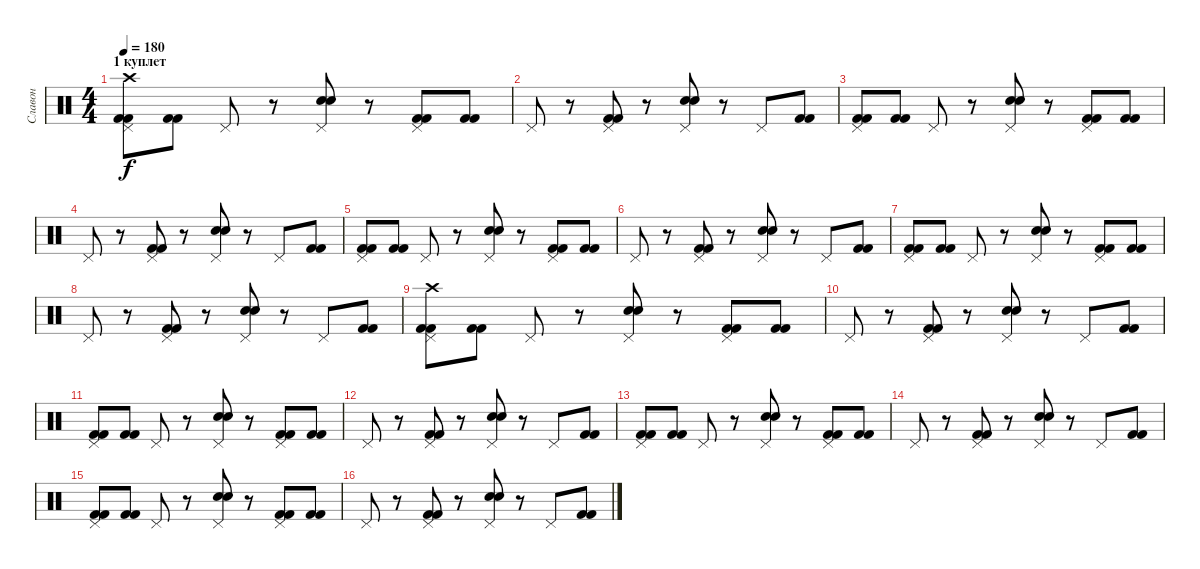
\track ("Славон" "Славон") {instrument percussion}
\staff {score}
\articulation defaults
\ts (4 4)
\section ("" "1 куплет")
\tempo 180
\clef neutral
\ks c
("Pedal Hi-Hat (hit)" "Kick (hit) 2" "Kick (hit) 2" "Crash high (hit)").8{dy f} ("Kick (hit) 2" "Kick (hit) 2").8 "Pedal Hi-Hat (hit)".8 r.8 ("Pedal Hi-Hat (hit)" "Electric Snare (hit)" "Electric Snare (hit)").8 r.8 ("Pedal Hi-Hat (hit)" "Kick (hit) 2" "Kick (hit) 2").8 ("Kick (hit) 2" "Kick (hit) 2").8 |
"Pedal Hi-Hat (hit)".8 r.8 ("Pedal Hi-Hat (hit)" "Kick (hit) 2" "Kick (hit) 2").8 r.8 ("Pedal Hi-Hat (hit)" "Electric Snare (hit)" "Electric Snare (hit)").8 r.8 "Pedal Hi-Hat (hit)".8 ("Kick (hit) 2" "Kick (hit) 2").8 |
("Pedal Hi-Hat (hit)" "Kick (hit) 2" "Kick (hit) 2").8 ("Kick (hit) 2" "Kick (hit) 2").8 "Pedal Hi-Hat (hit)".8 r.8 ("Pedal Hi-Hat (hit)" "Electric Snare (hit)" "Electric Snare (hit)").8 r.8 ("Pedal Hi-Hat (hit)" "Kick (hit) 2" "Kick (hit) 2").8 ("Kick (hit) 2" "Kick (hit) 2").8 |
"Pedal Hi-Hat (hit)".8 r.8 ("Pedal Hi-Hat (hit)" "Kick (hit) 2" "Kick (hit) 2").8 r.8 ("Pedal Hi-Hat (hit)" "Electric Snare (hit)" "Electric Snare (hit)").8 r.8 "Pedal Hi-Hat (hit)".8 ("Kick (hit) 2" "Kick (hit) 2").8 |
("Pedal Hi-Hat (hit)" "Kick (hit) 2" "Kick (hit) 2").8 ("Kick (hit) 2" "Kick (hit) 2").8 "Pedal Hi-Hat (hit)".8 r.8 ("Pedal Hi-Hat (hit)" "Electric Snare (hit)" "Electric Snare (hit)").8 r.8 ("Pedal Hi-Hat (hit)" "Kick (hit) 2" "Kick (hit) 2").8 ("Kick (hit) 2" "Kick (hit) 2").8 |
"Pedal Hi-Hat (hit)".8 r.8 ("Pedal Hi-Hat (hit)" "Kick (hit) 2" "Kick (hit) 2").8 r.8 ("Pedal Hi-Hat (hit)" "Electric Snare (hit)" "Electric Snare (hit)").8 r.8 "Pedal Hi-Hat (hit)".8 ("Kick (hit) 2" "Kick (hit) 2").8 |
("Pedal Hi-Hat (hit)" "Kick (hit) 2" "Kick (hit) 2").8 ("Kick (hit) 2" "Kick (hit) 2").8 "Pedal Hi-Hat (hit)".8 r.8 ("Pedal Hi-Hat (hit)" "Electric Snare (hit)" "Electric Snare (hit)").8 r.8 ("Pedal Hi-Hat (hit)" "Kick (hit) 2" "Kick (hit) 2").8 ("Kick (hit) 2" "Kick (hit) 2").8 |
"Pedal Hi-Hat (hit)".8 r.8 ("Pedal Hi-Hat (hit)" "Kick (hit) 2" "Kick (hit) 2").8 r.8 ("Pedal Hi-Hat (hit)" "Electric Snare (hit)" "Electric Snare (hit)").8 r.8 "Pedal Hi-Hat (hit)".8 ("Kick (hit) 2" "Kick (hit) 2").8 |
("Pedal Hi-Hat (hit)" "Kick (hit) 2" "Kick (hit) 2" "Crash high (hit)").8 ("Kick (hit) 2" "Kick (hit) 2").8 "Pedal Hi-Hat (hit)".8 r.8 ("Pedal Hi-Hat (hit)" "Electric Snare (hit)" "Electric Snare (hit)").8 r.8 ("Pedal Hi-Hat (hit)" "Kick (hit) 2" "Kick (hit) 2").8 ("Kick (hit) 2" "Kick (hit) 2").8 |
"Pedal Hi-Hat (hit)".8 r.8 ("Pedal Hi-Hat (hit)" "Kick (hit) 2" "Kick (hit) 2").8 r.8 ("Pedal Hi-Hat (hit)" "Electric Snare (hit)" "Electric Snare (hit)").8 r.8 "Pedal Hi-Hat (hit)".8 ("Kick (hit) 2" "Kick (hit) 2").8 |
("Pedal Hi-Hat (hit)" "Kick (hit) 2" "Kick (hit) 2").8 ("Kick (hit) 2" "Kick (hit) 2").8 "Pedal Hi-Hat (hit)".8 r.8 ("Pedal Hi-Hat (hit)" "Electric Snare (hit)" "Electric Snare (hit)").8 r.8 ("Pedal Hi-Hat (hit)" "Kick (hit) 2" "Kick (hit) 2").8 ("Kick (hit) 2" "Kick (hit) 2").8 |
"Pedal Hi-Hat (hit)".8 r.8 ("Pedal Hi-Hat (hit)" "Kick (hit) 2" "Kick (hit) 2").8 r.8 ("Pedal Hi-Hat (hit)" "Electric Snare (hit)" "Electric Snare (hit)").8 r.8 "Pedal Hi-Hat (hit)".8 ("Kick (hit) 2" "Kick (hit) 2").8 |
("Pedal Hi-Hat (hit)" "Kick (hit) 2" "Kick (hit) 2").8 ("Kick (hit) 2" "Kick (hit) 2").8 "Pedal Hi-Hat (hit)".8 r.8 ("Pedal Hi-Hat (hit)" "Electric Snare (hit)" "Electric Snare (hit)").8 r.8 ("Pedal Hi-Hat (hit)" "Kick (hit) 2" "Kick (hit) 2").8 ("Kick (hit) 2" "Kick (hit) 2").8 |
"Pedal Hi-Hat (hit)".8 r.8 ("Pedal Hi-Hat (hit)" "Kick (hit) 2" "Kick (hit) 2").8 r.8 ("Pedal Hi-Hat (hit)" "Electric Snare (hit)" "Electric Snare (hit)").8 r.8 "Pedal Hi-Hat (hit)".8 ("Kick (hit) 2" "Kick (hit) 2").8 |
("Pedal Hi-Hat (hit)" "Kick (hit) 2" "Kick (hit) 2").8 ("Kick (hit) 2" "Kick (hit) 2").8 "Pedal Hi-Hat (hit)".8 r.8 ("Pedal Hi-Hat (hit)" "Electric Snare (hit)" "Electric Snare (hit)").8 r.8 ("Pedal Hi-Hat (hit)" "Kick (hit) 2" "Kick (hit) 2").8 ("Kick (hit) 2" "Kick (hit) 2").8 |
"Pedal Hi-Hat (hit)".8 r.8 ("Pedal Hi-Hat (hit)" "Kick (hit) 2" "Kick (hit) 2").8 r.8 ("Pedal Hi-Hat (hit)" "Electric Snare (hit)" "Electric Snare (hit)").8 r.8 "Pedal Hi-Hat (hit)".8 ("Kick (hit) 2" "Kick (hit) 2").8
